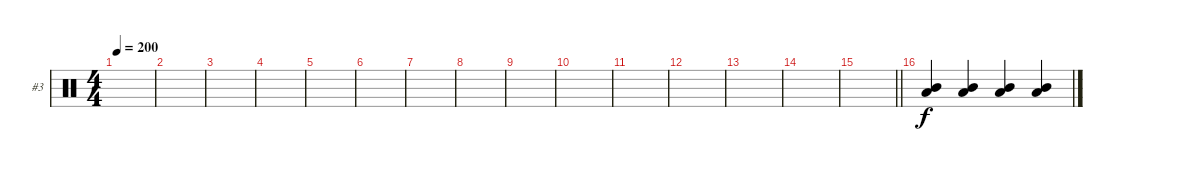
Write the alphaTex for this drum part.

\bracketExtendMode groupsimilarinstruments
\firstSystemTrackNameOrientation horizontal
\otherSystemsTrackNameOrientation horizontal
\track ("Chris Fehn" "#3") {instrument percussion}
\staff {score}
\articulation defaults
\ts (4 4)
\tempo 200
\clef neutral
\ks c
|
|
|
|
|
|
|
|
|
|
|
|
|
|
\barLineRight lightlight
|
("Low Tom (hit)" "Mid Tom (hit)").4 ("Low Tom (hit)" "Mid Tom (hit)").4 ("Low Tom (hit)" "Mid Tom (hit)").4 ("Low Tom (hit)" "Mid Tom (hit)").4
